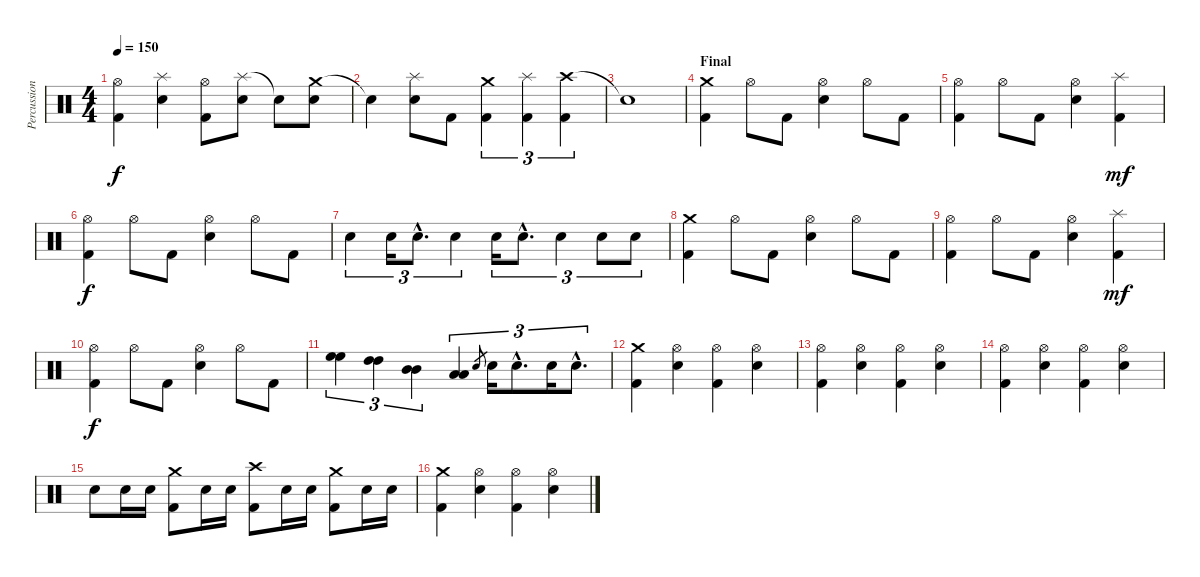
\track ("Percussions" "Percussion") {instrument percussion}
\staff {score}
\articulation defaults
\ts (4 4)
\tempo 150
\clef neutral
\ks c
("Hi-Hat (open)" "Kick (hit) 2").4{dy f} ("Splash (hit)" "Electric Snare (hit)").4 ("Hi-Hat (open)" "Kick (hit) 2").8 ("Splash (hit)" "Electric Snare (hit)").8 "Snare (hit)"{t}.8 ("Crash medium (hit)" "Electric Snare (hit)").8 |
"Snare (hit)"{t}.4 ("Splash (hit)" "Electric Snare (hit)").8 "Kick (hit) 2".8 ("Crash medium (hit)" "Kick (hit) 2").4{tu (3 2)} ("Splash (hit)" "Kick (hit) 2").4{tu (3 2)} ("Crash high (hit)" "Kick (hit) 2").4{tu (3 2)} |
"Snare (hit)"{t}.1 |
\section ("" "Final")
("Crash medium (hit)" "Kick (hit) 2").4 "Hi-Hat (open)".8 "Kick (hit) 2".8 ("Hi-Hat (open)" "Electric Snare (hit)").4 "Hi-Hat (open)".8 "Kick (hit) 2".8 |
("Hi-Hat (open)" "Kick (hit) 2").4 "Hi-Hat (open)".8 "Kick (hit) 2".8 ("Hi-Hat (open)" "Electric Snare (hit)").4 ("Splash (hit)" "Kick (hit) 2").4{dy mf} |
("Hi-Hat (open)" "Kick (hit) 2").4{dy f} "Hi-Hat (open)".8 "Kick (hit) 2".8 ("Hi-Hat (open)" "Electric Snare (hit)").4 "Hi-Hat (open)".8 "Kick (hit) 2".8 |
"Electric Snare (hit)".4{tu (3 2)} "Electric Snare (hit)".16{tu (3 2)} "Electric Snare (hit)"{hac}.8{d tu (3 2)} "Electric Snare (hit)".4{tu (3 2)} "Electric Snare (hit)".16{tu (3 2)} "Electric Snare (hit)"{hac}.8{d tu (3 2)} "Electric Snare (hit)".4{tu (3 2)} "Electric Snare (hit)".8{tu (3 2)} "Electric Snare (hit)".8{tu (3 2)} |
("Crash medium (hit)" "Kick (hit) 2").4 "Hi-Hat (open)".8 "Kick (hit) 2".8 ("Hi-Hat (open)" "Electric Snare (hit)").4 "Hi-Hat (open)".8 "Kick (hit) 2".8 |
("Hi-Hat (open)" "Kick (hit) 2").4 "Hi-Hat (open)".8 "Kick (hit) 2".8 ("Hi-Hat (open)" "Electric Snare (hit)").4 ("Splash (hit)" "Kick (hit) 2").4{dy mf} |
("Hi-Hat (open)" "Kick (hit) 2").4{dy f} "Hi-Hat (open)".8 "Kick (hit) 2".8 ("Hi-Hat (open)" "Electric Snare (hit)").4 "Hi-Hat (open)".8 "Kick (hit) 2".8 |
("High Floor Tom (hit)" "High Floor Tom (hit)").4{tu (3 2)} ("High Tom (hit)" "High Tom (hit)").4{tu (3 2)} ("Mid Tom (hit)" "Mid Tom (hit)").4{tu (3 2)} ("Low Tom (hit)" "Low Tom (hit)").4{tu (3 2)} "Electric Snare (hit)".8{gr} "Electric Snare (hit)".16{tu (3 2)} "Electric Snare (hit)"{hac}.8{d tu (3 2)} "Electric Snare (hit)".16{tu (3 2)} "Electric Snare (hit)"{hac}.8{d tu (3 2)} |
("Crash medium (hit)" "Kick (hit) 2").4 ("Hi-Hat (open)" "Electric Snare (hit)").4 ("Hi-Hat (open)" "Kick (hit) 2").4 ("Hi-Hat (open)" "Electric Snare (hit)").4 |
("Hi-Hat (open)" "Kick (hit) 2").4 ("Hi-Hat (open)" "Electric Snare (hit)").4 ("Hi-Hat (open)" "Kick (hit) 2").4 ("Hi-Hat (open)" "Electric Snare (hit)").4 |
("Hi-Hat (open)" "Kick (hit) 2").4 ("Hi-Hat (open)" "Electric Snare (hit)").4 ("Hi-Hat (open)" "Kick (hit) 2").4 ("Hi-Hat (open)" "Electric Snare (hit)").4 |
"Electric Snare (hit)".8 "Electric Snare (hit)".16 "Electric Snare (hit)".16 ("Crash medium (hit)" "Kick (hit) 2").8 "Electric Snare (hit)".16 "Electric Snare (hit)".16 ("Crash high (hit)" "Kick (hit) 2").8 "Electric Snare (hit)".16 "Electric Snare (hit)".16 ("Crash medium (hit)" "Kick (hit) 2").8 "Electric Snare (hit)".16 "Electric Snare (hit)".16 |
("Crash medium (hit)" "Kick (hit) 2").4 ("Hi-Hat (open)" "Electric Snare (hit)").4 ("Hi-Hat (open)" "Kick (hit) 2").4 ("Hi-Hat (open)" "Electric Snare (hit)").4
